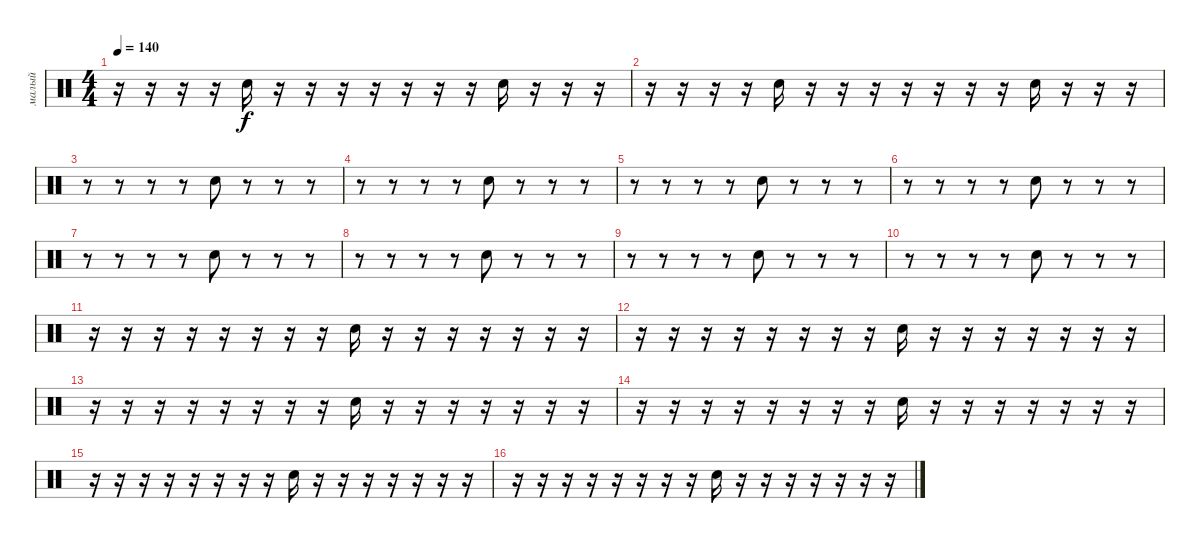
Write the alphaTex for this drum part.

\track ("малый" "малый") {mute instrument percussion}
\staff {score}
\articulation defaults
\ts (4 4)
\tempo 140
\clef neutral
\ks c
r.16{dy f} r.16 r.16 r.16 "Electric Snare (hit)".16 r.16 r.16 r.16 r.16 r.16 r.16 r.16 "Electric Snare (hit)".16 r.16 r.16 r.16 |
r.16 r.16 r.16 r.16 "Electric Snare (hit)".16 r.16 r.16 r.16 r.16 r.16 r.16 r.16 "Electric Snare (hit)".16 r.16 r.16 r.16 |
r.8 r.8 r.8 r.8 "Electric Snare (hit)".8 r.8 r.8 r.8 |
r.8 r.8 r.8 r.8 "Electric Snare (hit)".8 r.8 r.8 r.8 |
r.8 r.8 r.8 r.8 "Electric Snare (hit)".8 r.8 r.8 r.8 |
r.8 r.8 r.8 r.8 "Electric Snare (hit)".8 r.8 r.8 r.8 |
r.8 r.8 r.8 r.8 "Electric Snare (hit)".8 r.8 r.8 r.8 |
r.8 r.8 r.8 r.8 "Electric Snare (hit)".8 r.8 r.8 r.8 |
r.8 r.8 r.8 r.8 "Electric Snare (hit)".8 r.8 r.8 r.8 |
r.8 r.8 r.8 r.8 "Electric Snare (hit)".8 r.8 r.8 r.8 |
r.16 r.16 r.16 r.16 r.16 r.16 r.16 r.16 "Electric Snare (hit)".16 r.16 r.16 r.16 r.16 r.16 r.16 r.16 |
r.16 r.16 r.16 r.16 r.16 r.16 r.16 r.16 "Electric Snare (hit)".16 r.16 r.16 r.16 r.16 r.16 r.16 r.16 |
r.16 r.16 r.16 r.16 r.16 r.16 r.16 r.16 "Electric Snare (hit)".16 r.16 r.16 r.16 r.16 r.16 r.16 r.16 |
r.16 r.16 r.16 r.16 r.16 r.16 r.16 r.16 "Electric Snare (hit)".16 r.16 r.16 r.16 r.16 r.16 r.16 r.16 |
r.16 r.16 r.16 r.16 r.16 r.16 r.16 r.16 "Electric Snare (hit)".16 r.16 r.16 r.16 r.16 r.16 r.16 r.16 |
r.16 r.16 r.16 r.16 r.16 r.16 r.16 r.16 "Electric Snare (hit)".16 r.16 r.16 r.16 r.16 r.16 r.16 r.16
